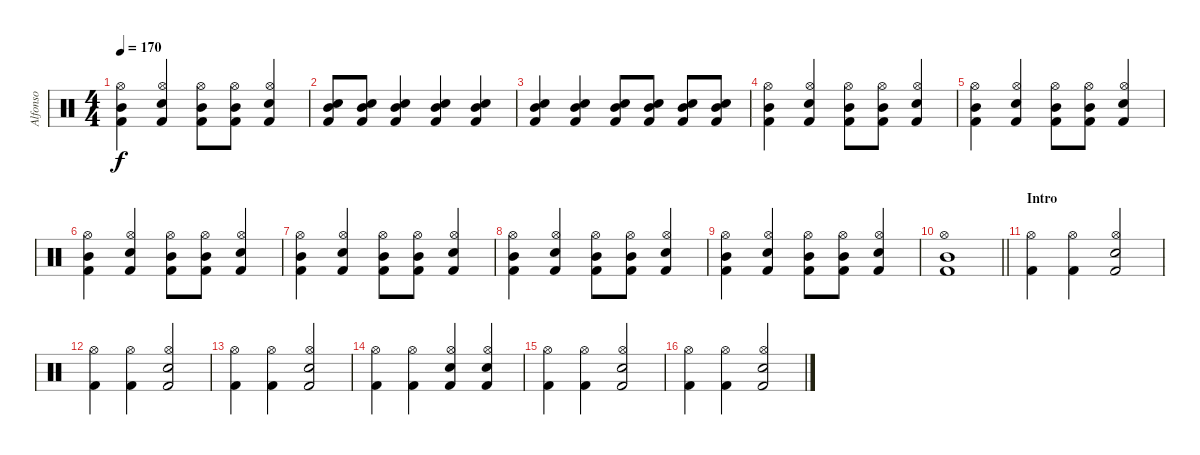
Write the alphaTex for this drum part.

\track ("Alfonso" "Alfonso") {instrument percussion}
\staff {score}
\articulation defaults
\ts (4 4)
\tempo 170
\clef neutral
\ks c
("Kick (hit) 2" "Mid Tom (hit)" "Hi-Hat (open)").4{dy f} ("Kick (hit) 2" "Snare (hit) 2" "Hi-Hat (open)").4 ("Kick (hit) 2" "Mid Tom (hit)" "Hi-Hat (open)").8 ("Kick (hit) 2" "Mid Tom (hit)" "Hi-Hat (open)").8 ("Kick (hit) 2" "Snare (hit) 2" "Hi-Hat (open)").4 |
("Kick (hit) 2" "Snare (hit) 2" "Mid Tom (hit)").8 ("Kick (hit) 2" "Snare (hit) 2" "Mid Tom (hit)").8 ("Kick (hit) 2" "Snare (hit) 2" "Mid Tom (hit)").4 ("Kick (hit) 2" "Snare (hit) 2" "Mid Tom (hit)").4 ("Kick (hit) 2" "Snare (hit) 2" "Mid Tom (hit)").4 |
("Kick (hit) 2" "Snare (hit) 2" "Mid Tom (hit)").4 ("Kick (hit) 2" "Snare (hit) 2" "Mid Tom (hit)").4 ("Kick (hit) 2" "Snare (hit) 2" "Mid Tom (hit)").8 ("Kick (hit) 2" "Snare (hit) 2" "Mid Tom (hit)").8 ("Kick (hit) 2" "Snare (hit) 2" "Mid Tom (hit)").8 ("Kick (hit) 2" "Snare (hit) 2" "Mid Tom (hit)").8 |
("Kick (hit) 2" "Mid Tom (hit)" "Hi-Hat (open)").4 ("Kick (hit) 2" "Snare (hit) 2" "Hi-Hat (open)").4 ("Kick (hit) 2" "Mid Tom (hit)" "Hi-Hat (open)").8 ("Kick (hit) 2" "Mid Tom (hit)" "Hi-Hat (open)").8 ("Kick (hit) 2" "Snare (hit) 2" "Hi-Hat (open)").4 |
("Kick (hit) 2" "Mid Tom (hit)" "Hi-Hat (open)").4 ("Kick (hit) 2" "Snare (hit) 2" "Hi-Hat (open)").4 ("Kick (hit) 2" "Mid Tom (hit)" "Hi-Hat (open)").8 ("Kick (hit) 2" "Mid Tom (hit)" "Hi-Hat (open)").8 ("Kick (hit) 2" "Snare (hit) 2" "Hi-Hat (open)").4 |
("Kick (hit) 2" "Mid Tom (hit)" "Hi-Hat (open)").4 ("Kick (hit) 2" "Snare (hit) 2" "Hi-Hat (open)").4 ("Kick (hit) 2" "Mid Tom (hit)" "Hi-Hat (open)").8 ("Kick (hit) 2" "Mid Tom (hit)" "Hi-Hat (open)").8 ("Kick (hit) 2" "Snare (hit) 2" "Hi-Hat (open)").4 |
("Kick (hit) 2" "Mid Tom (hit)" "Hi-Hat (open)").4 ("Kick (hit) 2" "Snare (hit) 2" "Hi-Hat (open)").4 ("Kick (hit) 2" "Mid Tom (hit)" "Hi-Hat (open)").8 ("Kick (hit) 2" "Mid Tom (hit)" "Hi-Hat (open)").8 ("Kick (hit) 2" "Snare (hit) 2" "Hi-Hat (open)").4 |
("Kick (hit) 2" "Mid Tom (hit)" "Hi-Hat (open)").4 ("Kick (hit) 2" "Snare (hit) 2" "Hi-Hat (open)").4 ("Kick (hit) 2" "Mid Tom (hit)" "Hi-Hat (open)").8 ("Kick (hit) 2" "Mid Tom (hit)" "Hi-Hat (open)").8 ("Kick (hit) 2" "Snare (hit) 2" "Hi-Hat (open)").4 |
("Kick (hit) 2" "Mid Tom (hit)" "Hi-Hat (open)").4 ("Kick (hit) 2" "Snare (hit) 2" "Hi-Hat (open)").4 ("Kick (hit) 2" "Mid Tom (hit)" "Hi-Hat (open)").8 ("Kick (hit) 2" "Mid Tom (hit)" "Hi-Hat (open)").8 ("Kick (hit) 2" "Snare (hit) 2" "Hi-Hat (open)").4 |
\barLineRight lightlight
("Kick (hit) 2" "Mid Tom (hit)" "Hi-Hat (open)").1 |
\section ("" "Intro")
("Kick (hit) 2" "Hi-Hat (open)").4 ("Kick (hit) 2" "Hi-Hat (open)").4 ("Kick (hit) 2" "Snare (hit) 2" "Hi-Hat (open)").2 |
("Kick (hit) 2" "Hi-Hat (open)").4 ("Kick (hit) 2" "Hi-Hat (open)").4 ("Kick (hit) 2" "Snare (hit) 2" "Hi-Hat (open)").2 |
("Kick (hit) 2" "Hi-Hat (open)").4 ("Kick (hit) 2" "Hi-Hat (open)").4 ("Kick (hit) 2" "Snare (hit) 2" "Hi-Hat (open)").2 |
("Kick (hit) 2" "Hi-Hat (open)").4 ("Kick (hit) 2" "Hi-Hat (open)").4 ("Kick (hit) 2" "Snare (hit) 2" "Hi-Hat (open)").4 ("Kick (hit) 2" "Snare (hit) 2" "Hi-Hat (open)").4 |
("Kick (hit) 2" "Hi-Hat (open)").4 ("Kick (hit) 2" "Hi-Hat (open)").4 ("Kick (hit) 2" "Snare (hit) 2" "Hi-Hat (open)").2 |
("Kick (hit) 2" "Hi-Hat (open)").4 ("Kick (hit) 2" "Hi-Hat (open)").4 ("Kick (hit) 2" "Snare (hit) 2" "Hi-Hat (open)").2
